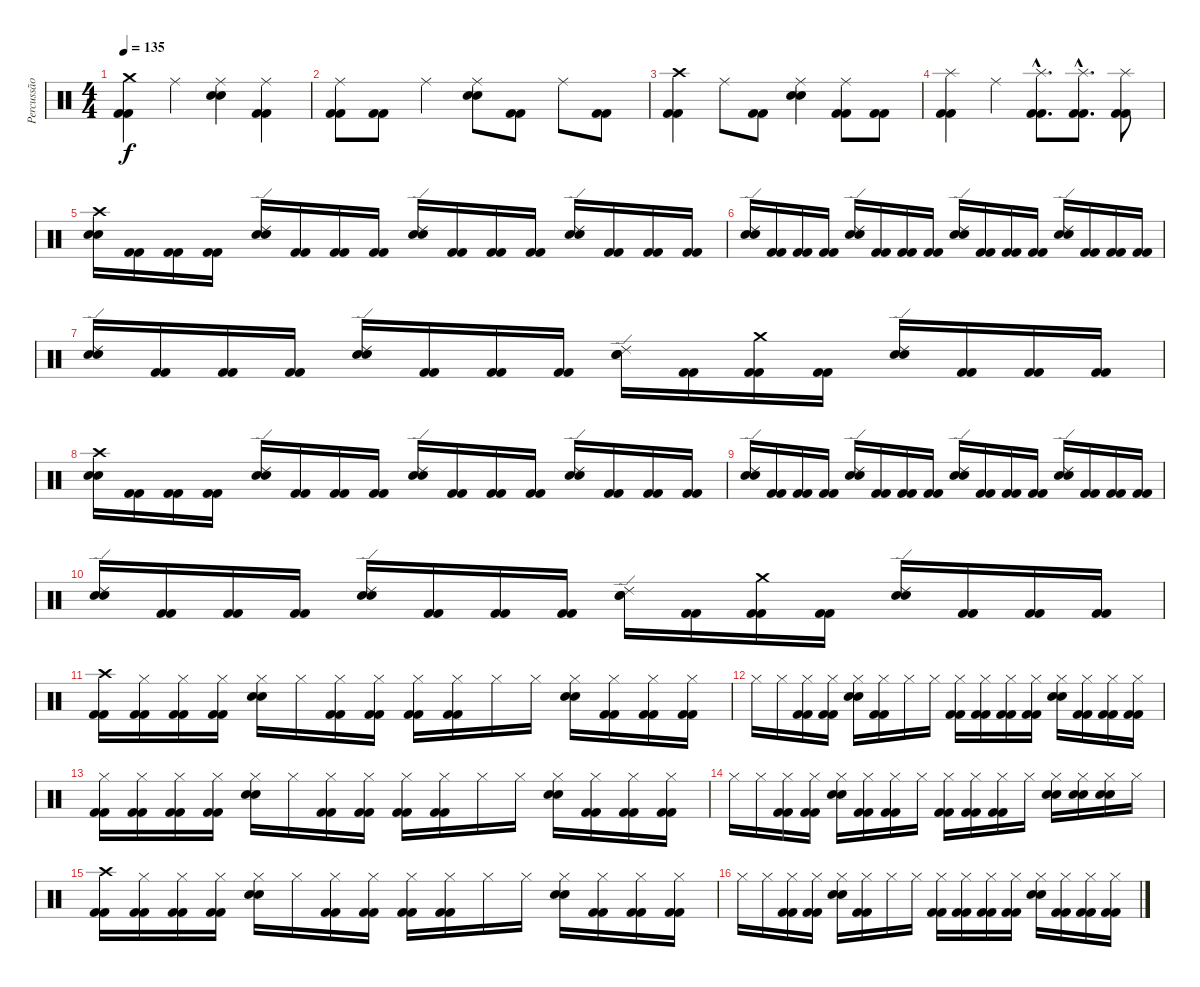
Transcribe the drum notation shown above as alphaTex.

\track ("Percussão" "Percussão") {instrument percussion}
\staff {score}
\articulation defaults
\ts (4 4)
\tempo 135
\clef neutral
\ks c
("Crash medium (hit)" "Kick (hit) 2" "Kick (hit) 2").4{dy f} "Ride (middle)".4 ("Ride (middle)" "Electric Snare (hit)" "Electric Snare (hit)").4 ("Ride (middle)" "Kick (hit) 2" "Kick (hit) 2").4 |
("Ride (middle)" "Kick (hit) 2" "Kick (hit) 2").8 ("Kick (hit) 2" "Kick (hit) 2").8 "Ride (middle)".4 ("Ride (middle)" "Electric Snare (hit)" "Electric Snare (hit)").8 ("Kick (hit) 2" "Kick (hit) 2").8 "Ride (middle)".8 ("Kick (hit) 2" "Kick (hit) 2").8 |
("Crash high (hit)" "Kick (hit) 2" "Kick (hit) 2").4 "Ride (middle)".8 ("Kick (hit) 2" "Kick (hit) 2").8 ("Ride (middle)" "Electric Snare (hit)" "Electric Snare (hit)").4 ("Ride (middle)" "Kick (hit) 2" "Kick (hit) 2").8 ("Kick (hit) 2" "Kick (hit) 2").8 |
("Splash (hit)" "Kick (hit) 2" "Kick (hit) 2").4 "Ride (middle)".4 ("Splash (hit)"{hac} "Kick (hit) 2"{hac} "Kick (hit) 2"{hac}).8{d} ("Splash (hit)"{hac} "Kick (hit) 2"{hac} "Kick (hit) 2"{hac}).8{d} ("Splash (hit)" "Kick (hit) 2" "Kick (hit) 2").8 |
("Crash high (hit)" "Electric Snare (hit)" "Electric Snare (hit)").16 ("Kick (hit) 2" "Kick (hit) 2").16 ("Kick (hit) 2" "Kick (hit) 2").16 ("Kick (hit) 2" "Kick (hit) 2").16 ("Ride (edge) 2" "Electric Snare (hit)" "Electric Snare (hit)").16 ("Kick (hit) 2" "Kick (hit) 2").16 ("Kick (hit) 2" "Kick (hit) 2").16 ("Kick (hit) 2" "Kick (hit) 2").16 ("Ride (edge) 2" "Electric Snare (hit)" "Electric Snare (hit)").16 ("Kick (hit) 2" "Kick (hit) 2").16 ("Kick (hit) 2" "Kick (hit) 2").16 ("Kick (hit) 2" "Kick (hit) 2").16 ("Ride (edge) 2" "Electric Snare (hit)" "Electric Snare (hit)").16 ("Kick (hit) 2" "Kick (hit) 2").16 ("Kick (hit) 2" "Kick (hit) 2").16 ("Kick (hit) 2" "Kick (hit) 2").16 |
("Ride (edge) 2" "Electric Snare (hit)" "Electric Snare (hit)").16 ("Kick (hit) 2" "Kick (hit) 2").16 ("Kick (hit) 2" "Kick (hit) 2").16 ("Kick (hit) 2" "Kick (hit) 2").16 ("Ride (edge) 2" "Electric Snare (hit)" "Electric Snare (hit)").16 ("Kick (hit) 2" "Kick (hit) 2").16 ("Kick (hit) 2" "Kick (hit) 2").16 ("Kick (hit) 2" "Kick (hit) 2").16 ("Ride (edge) 2" "Electric Snare (hit)" "Electric Snare (hit)").16 ("Kick (hit) 2" "Kick (hit) 2").16 ("Kick (hit) 2" "Kick (hit) 2").16 ("Kick (hit) 2" "Kick (hit) 2").16 ("Ride (edge) 2" "Electric Snare (hit)" "Electric Snare (hit)").16 ("Kick (hit) 2" "Kick (hit) 2").16 ("Kick (hit) 2" "Kick (hit) 2").16 ("Kick (hit) 2" "Kick (hit) 2").16 |
("Ride (edge) 2" "Electric Snare (hit)" "Electric Snare (hit)").16 ("Kick (hit) 2" "Kick (hit) 2").16 ("Kick (hit) 2" "Kick (hit) 2").16 ("Kick (hit) 2" "Kick (hit) 2").16 ("Ride (edge) 2" "Electric Snare (hit)" "Electric Snare (hit)").16 ("Kick (hit) 2" "Kick (hit) 2").16 ("Kick (hit) 2" "Kick (hit) 2").16 ("Kick (hit) 2" "Kick (hit) 2").16 ("Ride (edge) 2" "Electric Snare (hit)" "Electric Snare (hit)").16 ("Kick (hit) 2" "Kick (hit) 2").16 ("Crash medium (hit)" "Kick (hit) 2" "Kick (hit) 2").16 ("Kick (hit) 2" "Kick (hit) 2").16 ("Ride (edge) 2" "Electric Snare (hit)" "Electric Snare (hit)").16 ("Kick (hit) 2" "Kick (hit) 2").16 ("Kick (hit) 2" "Kick (hit) 2").16 ("Kick (hit) 2" "Kick (hit) 2").16 |
("Crash high (hit)" "Electric Snare (hit)" "Electric Snare (hit)").16 ("Kick (hit) 2" "Kick (hit) 2").16 ("Kick (hit) 2" "Kick (hit) 2").16 ("Kick (hit) 2" "Kick (hit) 2").16 ("Ride (edge) 2" "Electric Snare (hit)" "Electric Snare (hit)").16 ("Kick (hit) 2" "Kick (hit) 2").16 ("Kick (hit) 2" "Kick (hit) 2").16 ("Kick (hit) 2" "Kick (hit) 2").16 ("Ride (edge) 2" "Electric Snare (hit)" "Electric Snare (hit)").16 ("Kick (hit) 2" "Kick (hit) 2").16 ("Kick (hit) 2" "Kick (hit) 2").16 ("Kick (hit) 2" "Kick (hit) 2").16 ("Ride (edge) 2" "Electric Snare (hit)" "Electric Snare (hit)").16 ("Kick (hit) 2" "Kick (hit) 2").16 ("Kick (hit) 2" "Kick (hit) 2").16 ("Kick (hit) 2" "Kick (hit) 2").16 |
("Ride (edge) 2" "Electric Snare (hit)" "Electric Snare (hit)").16 ("Kick (hit) 2" "Kick (hit) 2").16 ("Kick (hit) 2" "Kick (hit) 2").16 ("Kick (hit) 2" "Kick (hit) 2").16 ("Ride (edge) 2" "Electric Snare (hit)" "Electric Snare (hit)").16 ("Kick (hit) 2" "Kick (hit) 2").16 ("Kick (hit) 2" "Kick (hit) 2").16 ("Kick (hit) 2" "Kick (hit) 2").16 ("Ride (edge) 2" "Electric Snare (hit)" "Electric Snare (hit)").16 ("Kick (hit) 2" "Kick (hit) 2").16 ("Kick (hit) 2" "Kick (hit) 2").16 ("Kick (hit) 2" "Kick (hit) 2").16 ("Ride (edge) 2" "Electric Snare (hit)" "Electric Snare (hit)").16 ("Kick (hit) 2" "Kick (hit) 2").16 ("Kick (hit) 2" "Kick (hit) 2").16 ("Kick (hit) 2" "Kick (hit) 2").16 |
("Ride (edge) 2" "Electric Snare (hit)" "Electric Snare (hit)").16 ("Kick (hit) 2" "Kick (hit) 2").16 ("Kick (hit) 2" "Kick (hit) 2").16 ("Kick (hit) 2" "Kick (hit) 2").16 ("Ride (edge) 2" "Electric Snare (hit)" "Electric Snare (hit)").16 ("Kick (hit) 2" "Kick (hit) 2").16 ("Kick (hit) 2" "Kick (hit) 2").16 ("Kick (hit) 2" "Kick (hit) 2").16 ("Ride (edge) 2" "Electric Snare (hit)" "Electric Snare (hit)").16 ("Kick (hit) 2" "Kick (hit) 2").16 ("Crash medium (hit)" "Kick (hit) 2" "Kick (hit) 2").16 ("Kick (hit) 2" "Kick (hit) 2").16 ("Ride (edge) 2" "Electric Snare (hit)" "Electric Snare (hit)").16 ("Kick (hit) 2" "Kick (hit) 2").16 ("Kick (hit) 2" "Kick (hit) 2").16 ("Kick (hit) 2" "Kick (hit) 2").16 |
("Crash high (hit)" "Kick (hit) 2" "Kick (hit) 2").16 ("Hi-Hat (closed)" "Kick (hit) 2" "Kick (hit) 2").16 ("Hi-Hat (closed)" "Kick (hit) 2" "Kick (hit) 2").16 ("Hi-Hat (closed)" "Kick (hit) 2" "Kick (hit) 2").16 ("Hi-Hat (closed)" "Electric Snare (hit)" "Electric Snare (hit)").16 "Hi-Hat (closed)".16 ("Hi-Hat (closed)" "Kick (hit) 2" "Kick (hit) 2").16 ("Hi-Hat (closed)" "Kick (hit) 2" "Kick (hit) 2").16 ("Hi-Hat (closed)" "Kick (hit) 2" "Kick (hit) 2").16 ("Hi-Hat (closed)" "Kick (hit) 2" "Kick (hit) 2").16 "Hi-Hat (closed)".16 "Hi-Hat (closed)".16 ("Hi-Hat (closed)" "Electric Snare (hit)" "Electric Snare (hit)").16 ("Hi-Hat (closed)" "Kick (hit) 2" "Kick (hit) 2").16 ("Hi-Hat (closed)" "Kick (hit) 2" "Kick (hit) 2").16 ("Hi-Hat (closed)" "Kick (hit) 2" "Kick (hit) 2").16 |
"Hi-Hat (closed)".16 "Hi-Hat (closed)".16 ("Hi-Hat (closed)" "Kick (hit) 2" "Kick (hit) 2").16 ("Hi-Hat (closed)" "Kick (hit) 2" "Kick (hit) 2").16 ("Hi-Hat (closed)" "Electric Snare (hit)" "Electric Snare (hit)").16 ("Hi-Hat (closed)" "Kick (hit) 2" "Kick (hit) 2").16 "Hi-Hat (closed)".16 "Hi-Hat (closed)".16 ("Hi-Hat (closed)" "Kick (hit) 2" "Kick (hit) 2").16 ("Hi-Hat (closed)" "Kick (hit) 2" "Kick (hit) 2").16 ("Hi-Hat (closed)" "Kick (hit) 2" "Kick (hit) 2").16 ("Hi-Hat (closed)" "Kick (hit) 2" "Kick (hit) 2").16 ("Hi-Hat (closed)" "Electric Snare (hit)" "Electric Snare (hit)").16 ("Hi-Hat (closed)" "Kick (hit) 2" "Kick (hit) 2").16 ("Hi-Hat (closed)" "Kick (hit) 2" "Kick (hit) 2").16 ("Hi-Hat (closed)" "Kick (hit) 2" "Kick (hit) 2").16 |
("Hi-Hat (closed)" "Kick (hit) 2" "Kick (hit) 2").16 ("Hi-Hat (closed)" "Kick (hit) 2" "Kick (hit) 2").16 ("Hi-Hat (closed)" "Kick (hit) 2" "Kick (hit) 2").16 ("Hi-Hat (closed)" "Kick (hit) 2" "Kick (hit) 2").16 ("Hi-Hat (closed)" "Electric Snare (hit)" "Electric Snare (hit)").16 "Hi-Hat (closed)".16 ("Hi-Hat (closed)" "Kick (hit) 2" "Kick (hit) 2").16 ("Hi-Hat (closed)" "Kick (hit) 2" "Kick (hit) 2").16 ("Hi-Hat (closed)" "Kick (hit) 2" "Kick (hit) 2").16 ("Hi-Hat (closed)" "Kick (hit) 2" "Kick (hit) 2").16 "Hi-Hat (closed)".16 "Hi-Hat (closed)".16 ("Hi-Hat (closed)" "Electric Snare (hit)" "Electric Snare (hit)").16 ("Hi-Hat (closed)" "Kick (hit) 2" "Kick (hit) 2").16 ("Hi-Hat (closed)" "Kick (hit) 2" "Kick (hit) 2").16 ("Hi-Hat (closed)" "Kick (hit) 2" "Kick (hit) 2").16 |
"Hi-Hat (closed)".16 "Hi-Hat (closed)".16 ("Hi-Hat (closed)" "Kick (hit) 2" "Kick (hit) 2").16 ("Hi-Hat (closed)" "Kick (hit) 2" "Kick (hit) 2").16 ("Hi-Hat (closed)" "Electric Snare (hit)" "Electric Snare (hit)").16 ("Hi-Hat (closed)" "Kick (hit) 2" "Kick (hit) 2").16 ("Hi-Hat (closed)" "Kick (hit) 2" "Kick (hit) 2").16 "Hi-Hat (closed)".16 ("Hi-Hat (closed)" "Kick (hit) 2" "Kick (hit) 2").16 ("Hi-Hat (closed)" "Kick (hit) 2" "Kick (hit) 2").16 ("Hi-Hat (closed)" "Kick (hit) 2" "Kick (hit) 2").16 "Hi-Hat (closed)".16 ("Hi-Hat (closed)" "Electric Snare (hit)" "Electric Snare (hit)").16 ("Hi-Hat (closed)" "Electric Snare (hit)" "Electric Snare (hit)").16 ("Hi-Hat (closed)" "Electric Snare (hit)" "Electric Snare (hit)").16 "Hi-Hat (closed)".16 |
("Crash high (hit)" "Kick (hit) 2" "Kick (hit) 2").16 ("Hi-Hat (closed)" "Kick (hit) 2" "Kick (hit) 2").16 ("Hi-Hat (closed)" "Kick (hit) 2" "Kick (hit) 2").16 ("Hi-Hat (closed)" "Kick (hit) 2" "Kick (hit) 2").16 ("Hi-Hat (closed)" "Electric Snare (hit)" "Electric Snare (hit)").16 "Hi-Hat (closed)".16 ("Hi-Hat (closed)" "Kick (hit) 2" "Kick (hit) 2").16 ("Hi-Hat (closed)" "Kick (hit) 2" "Kick (hit) 2").16 ("Hi-Hat (closed)" "Kick (hit) 2" "Kick (hit) 2").16 ("Hi-Hat (closed)" "Kick (hit) 2" "Kick (hit) 2").16 "Hi-Hat (closed)".16 "Hi-Hat (closed)".16 ("Hi-Hat (closed)" "Electric Snare (hit)" "Electric Snare (hit)").16 ("Hi-Hat (closed)" "Kick (hit) 2" "Kick (hit) 2").16 ("Hi-Hat (closed)" "Kick (hit) 2" "Kick (hit) 2").16 ("Hi-Hat (closed)" "Kick (hit) 2" "Kick (hit) 2").16 |
"Hi-Hat (closed)".16 "Hi-Hat (closed)".16 ("Hi-Hat (closed)" "Kick (hit) 2" "Kick (hit) 2").16 ("Hi-Hat (closed)" "Kick (hit) 2" "Kick (hit) 2").16 ("Hi-Hat (closed)" "Electric Snare (hit)" "Electric Snare (hit)").16 ("Hi-Hat (closed)" "Kick (hit) 2" "Kick (hit) 2").16 "Hi-Hat (closed)".16 "Hi-Hat (closed)".16 ("Hi-Hat (closed)" "Kick (hit) 2" "Kick (hit) 2").16 ("Hi-Hat (closed)" "Kick (hit) 2" "Kick (hit) 2").16 ("Hi-Hat (closed)" "Kick (hit) 2" "Kick (hit) 2").16 ("Hi-Hat (closed)" "Kick (hit) 2" "Kick (hit) 2").16 ("Hi-Hat (closed)" "Electric Snare (hit)" "Electric Snare (hit)").16 ("Hi-Hat (closed)" "Kick (hit) 2" "Kick (hit) 2").16 ("Hi-Hat (closed)" "Kick (hit) 2" "Kick (hit) 2").16 ("Hi-Hat (closed)" "Kick (hit) 2" "Kick (hit) 2").16
